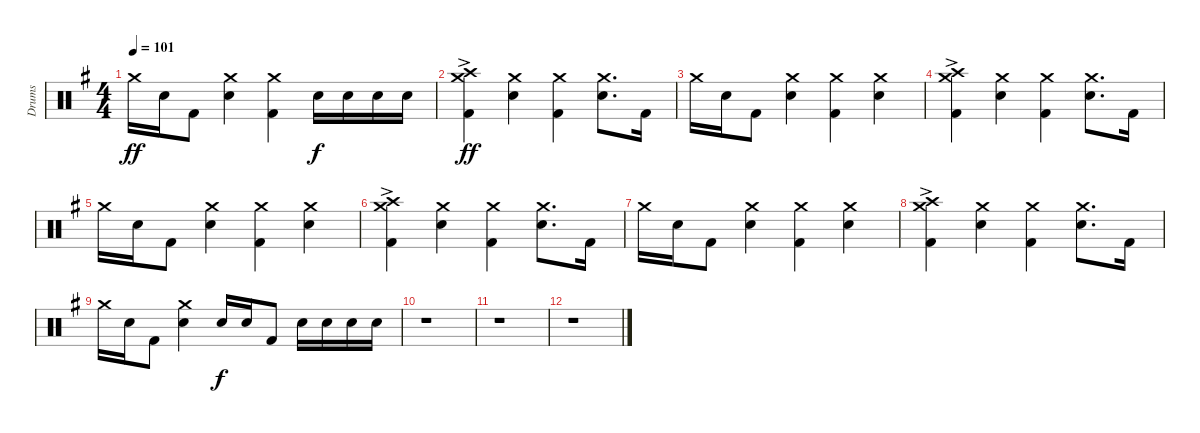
\track ("Drums" "Drums") {instrument percussion}
\staff {score}
\articulation defaults
\ts (4 4)
\tempo 101
\clef neutral
\ks eminor "Crash medium (hit)".16{dy ff} "Snare (hit) 2".16 "Kick (hit) 2".8
("Crash medium (hit)" "Snare (hit) 2").4 ("Crash medium (hit)" "Kick (hit) 2").4 "Snare (hit) 2".16{dy f} "Snare (hit) 2".16 "Snare (hit) 2".16 "Snare (hit) 2".16 |
("Crash medium (hit)"{ac} "Crash high (hit)"{ac} "Kick (hit) 2").4{dy ff} ("Crash medium (hit)" "Snare (hit) 2").4 ("Crash medium (hit)" "Kick (hit) 2").4 ("Crash medium (hit)" "Snare (hit) 2").8{d} "Kick (hit) 2".16 |
"Crash medium (hit)".16 "Snare (hit) 2".16 "Kick (hit) 2".8 ("Crash medium (hit)" "Snare (hit) 2").4 ("Crash medium (hit)" "Kick (hit) 2").4 ("Crash medium (hit)" "Snare (hit) 2").4 |
("Crash medium (hit)"{ac} "Crash high (hit)"{ac} "Kick (hit) 2").4 ("Crash medium (hit)" "Snare (hit) 2").4 ("Crash medium (hit)" "Kick (hit) 2").4 ("Crash medium (hit)" "Snare (hit) 2").8{d} "Kick (hit) 2".16 |
"Crash medium (hit)".16 "Snare (hit) 2".16 "Kick (hit) 2".8 ("Crash medium (hit)" "Snare (hit) 2").4 ("Crash medium (hit)" "Kick (hit) 2").4 ("Crash medium (hit)" "Snare (hit) 2").4 |
("Crash medium (hit)"{ac} "Crash high (hit)"{ac} "Kick (hit) 2").4 ("Crash medium (hit)" "Snare (hit) 2").4 ("Crash medium (hit)" "Kick (hit) 2").4 ("Crash medium (hit)" "Snare (hit) 2").8{d} "Kick (hit) 2".16 |
"Crash medium (hit)".16 "Snare (hit) 2".16 "Kick (hit) 2".8 ("Crash medium (hit)" "Snare (hit) 2").4 ("Crash medium (hit)" "Kick (hit) 2").4 ("Crash medium (hit)" "Snare (hit) 2").4 |
("Crash medium (hit)"{ac} "Crash high (hit)"{ac} "Kick (hit) 2").4 ("Crash medium (hit)" "Snare (hit) 2").4 ("Crash medium (hit)" "Kick (hit) 2").4 ("Crash medium (hit)" "Snare (hit) 2").8{d} "Kick (hit) 2".16 |
"Crash medium (hit)".16 "Snare (hit) 2".16 "Kick (hit) 2".8 ("Crash medium (hit)" "Snare (hit) 2").4 "Snare (hit) 2".16{dy f} "Snare (hit) 2".16 "Kick (hit) 2".8 "Snare (hit) 2".16 "Snare (hit) 2".16 "Snare (hit) 2".16 "Snare (hit) 2".16 |
r.1 |
r.1 |
r.1
